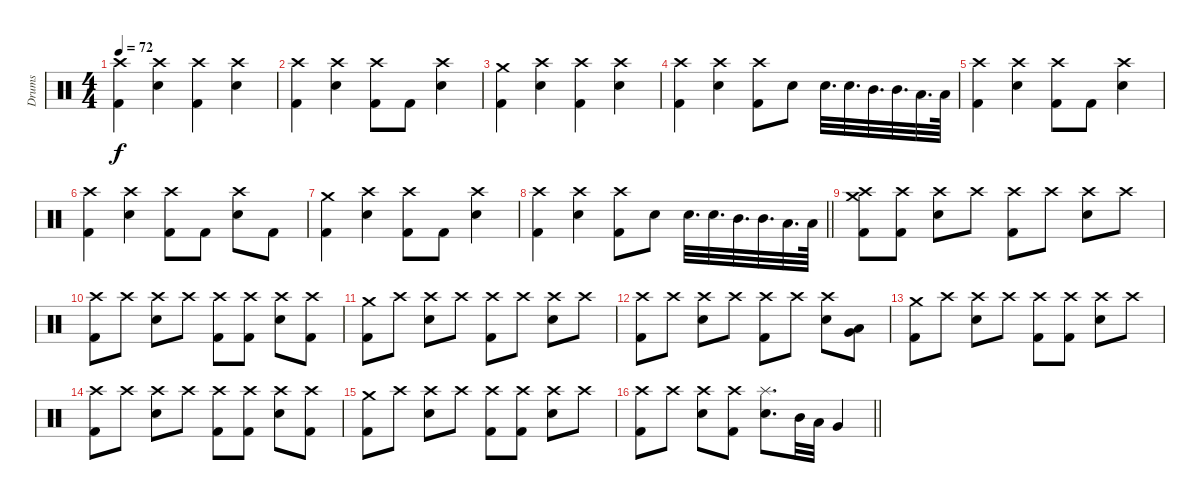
\track ("Drums" "Drums") {instrument percussion}
\staff {score}
\articulation defaults
\ts (4 4)
\tempo 72
\clef neutral
\ks c
("Crash high (hit)" "Kick (hit) 2").4{dy f} ("Crash high (hit)" "Snare (hit) 2").4 ("Crash high (hit)" "Kick (hit) 2").4 ("Crash high (hit)" "Snare (hit) 2").4 |
("Crash high (hit)" "Kick (hit) 2").4 ("Crash high (hit)" "Snare (hit) 2").4 ("Crash high (hit)" "Kick (hit) 2").8 "Kick (hit) 2".8 ("Crash high (hit)" "Snare (hit) 2").4 |
("Crash medium (hit)" "Kick (hit) 2").4 ("Crash high (hit)" "Snare (hit) 2").4 ("Crash high (hit)" "Kick (hit) 2").4 ("Crash high (hit)" "Snare (hit) 2").4 |
("Crash high (hit)" "Kick (hit) 2").4 ("Crash high (hit)" "Snare (hit) 2").4 ("Crash high (hit)" "Kick (hit) 2").8 "Snare (hit) 2".8 "Snare (hit) 2".32{d} "Snare (hit) 2".32{d} "Mid Tom (hit)".32{d} "Mid Tom (hit)".32{d} "Low Tom (hit)".32{d} "Low Tom (hit)".64 |
("Crash high (hit)" "Kick (hit) 2").4 ("Crash high (hit)" "Snare (hit) 2").4 ("Crash high (hit)" "Kick (hit) 2").8 "Kick (hit) 2".8 ("Crash high (hit)" "Snare (hit) 2").4 |
("Crash high (hit)" "Kick (hit) 2").4 ("Crash high (hit)" "Snare (hit) 2").4 ("Crash high (hit)" "Kick (hit) 2").8 "Kick (hit) 2".8 ("Crash high (hit)" "Snare (hit) 2").8 "Kick (hit) 2".8 |
("Crash medium (hit)" "Kick (hit) 2").4 ("Crash high (hit)" "Snare (hit) 2").4 ("Crash high (hit)" "Kick (hit) 2").8 "Kick (hit) 2".8 ("Crash high (hit)" "Snare (hit) 2").4 |
\barLineRight lightlight
("Crash high (hit)" "Kick (hit) 2").4 ("Crash high (hit)" "Snare (hit) 2").4 ("Crash high (hit)" "Kick (hit) 2").8 "Snare (hit) 2".8 "Snare (hit) 2".32{d} "Snare (hit) 2".32{d} "Mid Tom (hit)".32{d} "Mid Tom (hit)".32{d} "Low Tom (hit)".32{d} "Low Tom (hit)".64 |
("Crash high (hit)" "Crash medium (hit)" "Kick (hit) 2").8 ("Crash high (hit)" "Kick (hit) 2").8 ("Crash high (hit)" "Snare (hit) 2").8 "Crash high (hit)".8 ("Crash high (hit)" "Kick (hit) 2").8 "Crash high (hit)".8 ("Crash high (hit)" "Snare (hit) 2").8 "Crash high (hit)".8 |
("Crash high (hit)" "Kick (hit) 2").8 "Crash high (hit)".8 ("Crash high (hit)" "Snare (hit) 2").8 "Crash high (hit)".8 ("Crash high (hit)" "Kick (hit) 2").8 ("Crash high (hit)" "Kick (hit) 2").8 ("Crash high (hit)" "Snare (hit) 2").8 ("Crash high (hit)" "Kick (hit) 2").8 |
("Crash medium (hit)" "Kick (hit) 2").8 "Crash high (hit)".8 ("Crash high (hit)" "Snare (hit) 2").8 "Crash high (hit)".8 ("Crash high (hit)" "Kick (hit) 2").8 "Crash high (hit)".8 ("Crash high (hit)" "Snare (hit) 2").8 "Crash high (hit)".8 |
("Crash high (hit)" "Kick (hit) 2").8 "Crash high (hit)".8 ("Crash high (hit)" "Snare (hit) 2").8 "Crash high (hit)".8 ("Crash high (hit)" "Kick (hit) 2").8 "Crash high (hit)".8 ("Crash high (hit)" "Snare (hit) 2").8 ("Very Low Tom (hit)" "Low Tom (hit)").8 |
("Crash medium (hit)" "Kick (hit) 2").8 "Crash high (hit)".8 ("Crash high (hit)" "Snare (hit) 2").8 "Crash high (hit)".8 ("Crash high (hit)" "Kick (hit) 2").8 ("Crash high (hit)" "Kick (hit) 2").8 ("Crash high (hit)" "Snare (hit) 2").8 "Crash high (hit)".8 |
("Crash high (hit)" "Kick (hit) 2").8 "Crash high (hit)".8 ("Crash high (hit)" "Snare (hit) 2").8 "Crash high (hit)".8 ("Crash high (hit)" "Kick (hit) 2").8 ("Crash high (hit)" "Kick (hit) 2").8 ("Crash high (hit)" "Snare (hit) 2").8 ("Crash high (hit)" "Kick (hit) 2").8 |
("Crash medium (hit)" "Kick (hit) 2").8 "Crash high (hit)".8 ("Crash high (hit)" "Snare (hit) 2").8 "Crash high (hit)".8 ("Crash high (hit)" "Kick (hit) 2").8 ("Crash high (hit)" "Kick (hit) 2").8 ("Crash high (hit)" "Snare (hit) 2").8 "Crash high (hit)".8 |
\barLineRight lightlight
("Crash high (hit)" "Kick (hit) 2").8 "Crash high (hit)".8 ("Crash high (hit)" "Snare (hit) 2").8 ("Crash high (hit)" "Kick (hit) 2").8 ("Splash (hit)" "Snare (hit) 2").8{d} "Mid Tom (hit)".32 "Low Tom (hit)".32 "Very Low Tom (hit)".4
